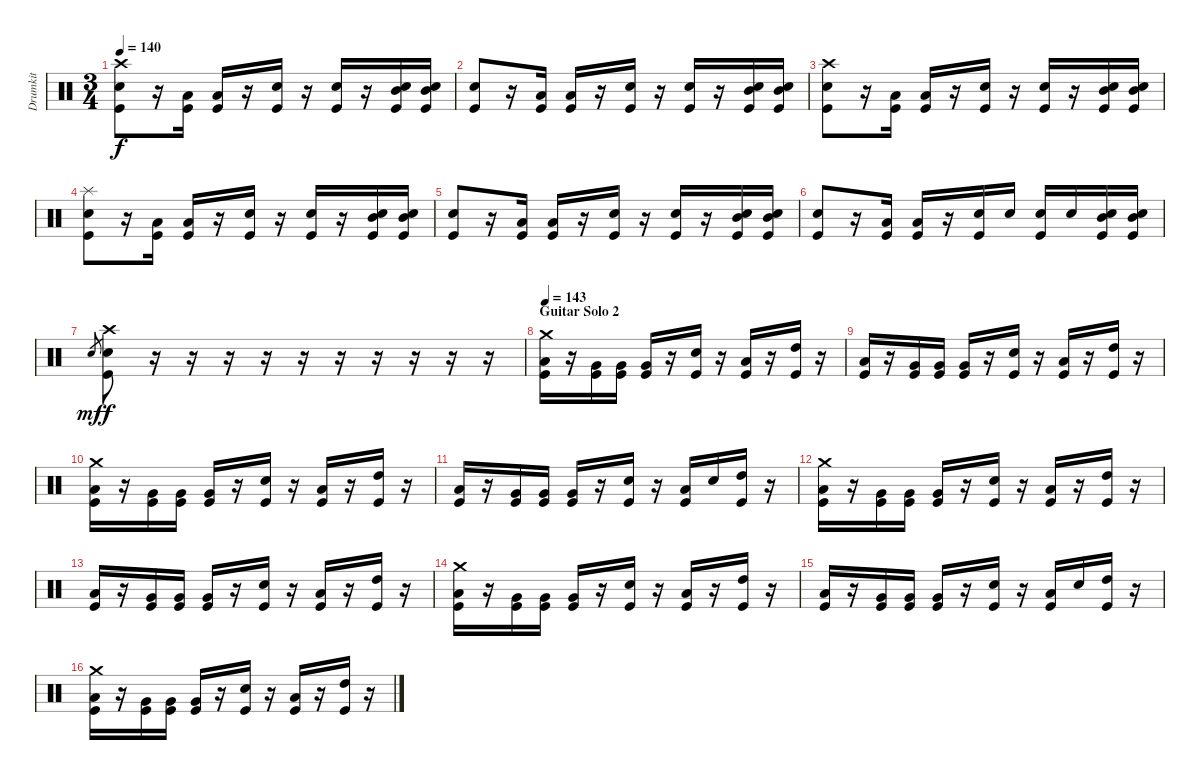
\track ("Drumkit" "Drumkit") {instrument percussion}
\staff {score}
\articulation defaults
\ts (3 4)
\tempo 140
\clef neutral
\ks c
("Crash high (hit)" "Snare (hit) 2" "Kick (hit)").8{dy f} r.16 ("Low Tom (hit)" "Kick (hit)").16 ("Low Tom (hit)" "Kick (hit)").16 r.16 ("Snare (hit) 2" "Kick (hit)").16 r.16 ("Snare (hit) 2" "Kick (hit)").16 r.16 ("Snare (hit) 2" "Mid Tom (hit)" "Kick (hit)").16 ("Snare (hit) 2" "Mid Tom (hit)" "Kick (hit)").16 |
("Snare (hit) 2" "Kick (hit)").8 r.16 ("Low Tom (hit)" "Kick (hit)").16 ("Low Tom (hit)" "Kick (hit)").16 r.16 ("Snare (hit) 2" "Kick (hit)").16 r.16 ("Snare (hit) 2" "Kick (hit)").16 r.16 ("Snare (hit) 2" "Mid Tom (hit)" "Kick (hit)").16 ("Snare (hit) 2" "Mid Tom (hit)" "Kick (hit)").16 |
("Crash high (hit)" "Snare (hit) 2" "Kick (hit)").8 r.16 ("Low Tom (hit)" "Kick (hit)").16 ("Low Tom (hit)" "Kick (hit)").16 r.16 ("Snare (hit) 2" "Kick (hit)").16 r.16 ("Snare (hit) 2" "Kick (hit)").16 r.16 ("Snare (hit) 2" "Mid Tom (hit)" "Kick (hit)").16 ("Snare (hit) 2" "Mid Tom (hit)" "Kick (hit)").16 |
("Splash (hit)" "Snare (hit) 2" "Kick (hit)").8 r.16 ("Low Tom (hit)" "Kick (hit)").16 ("Low Tom (hit)" "Kick (hit)").16 r.16 ("Snare (hit) 2" "Kick (hit)").16 r.16 ("Snare (hit) 2" "Kick (hit)").16 r.16 ("Snare (hit) 2" "Mid Tom (hit)" "Kick (hit)").16 ("Snare (hit) 2" "Mid Tom (hit)" "Kick (hit)").16 |
("Snare (hit) 2" "Kick (hit)").8 r.16 ("Low Tom (hit)" "Kick (hit)").16 ("Low Tom (hit)" "Kick (hit)").16 r.16 ("Snare (hit) 2" "Kick (hit)").16 r.16 ("Snare (hit) 2" "Kick (hit)").16 r.16 ("Snare (hit) 2" "Mid Tom (hit)" "Kick (hit)").16 ("Snare (hit) 2" "Mid Tom (hit)" "Kick (hit)").16 |
("Snare (hit) 2" "Kick (hit)").8 r.16 ("Low Tom (hit)" "Kick (hit)").16 ("Low Tom (hit)" "Kick (hit)").16 r.16 ("Snare (hit) 2" "Kick (hit)").16 "Snare (hit) 2".16 ("Snare (hit) 2" "Kick (hit)").16 "Snare (hit) 2".16 ("Snare (hit) 2" "Mid Tom (hit)" "Kick (hit)").16 ("Snare (hit) 2" "Mid Tom (hit)" "Kick (hit)").16 |
"Snare (hit)".8{gr dy mf} ("Crash high (hit)" "Snare (hit) 2" "Kick (hit)").8{dy f} r.16 r.16 r.16 r.16 r.16 r.16 r.16 r.16 r.16 r.16 |
\section ("" "Guitar Solo 2")
\tempo 143
("Crash medium (hit)" "Low Tom (hit)" "Kick (hit)").16 r.16 ("Very Low Tom (hit)" "Kick (hit)").16 ("Very Low Tom (hit)" "Kick (hit)").16 ("Very Low Tom (hit)" "Kick (hit)").16 r.16 ("Snare (hit) 2" "Kick (hit)").16 r.16 ("Low Tom (hit)" "Kick (hit)").16 r.16 ("High Tom (hit)" "Kick (hit)").16 r.16 |
("Low Tom (hit)" "Kick (hit)").16 r.16 ("Very Low Tom (hit)" "Kick (hit)").16 ("Very Low Tom (hit)" "Kick (hit)").16 ("Very Low Tom (hit)" "Kick (hit)").16 r.16 ("Snare (hit) 2" "Kick (hit)").16 r.16 ("Low Tom (hit)" "Kick (hit)").16 r.16 ("High Tom (hit)" "Kick (hit)").16 r.16 |
("Crash medium (hit)" "Low Tom (hit)" "Kick (hit)").16 r.16 ("Very Low Tom (hit)" "Kick (hit)").16 ("Very Low Tom (hit)" "Kick (hit)").16 ("Very Low Tom (hit)" "Kick (hit)").16 r.16 ("Snare (hit) 2" "Kick (hit)").16 r.16 ("Low Tom (hit)" "Kick (hit)").16 r.16 ("High Tom (hit)" "Kick (hit)").16 r.16 |
("Low Tom (hit)" "Kick (hit)").16 r.16 ("Very Low Tom (hit)" "Kick (hit)").16 ("Very Low Tom (hit)" "Kick (hit)").16 ("Very Low Tom (hit)" "Kick (hit)").16 r.16 ("Snare (hit) 2" "Kick (hit)").16 r.16 ("Low Tom (hit)" "Kick (hit)").16 "Snare (hit) 2".16 ("High Tom (hit)" "Kick (hit)").16 r.16 |
("Crash medium (hit)" "Low Tom (hit)" "Kick (hit)").16 r.16 ("Very Low Tom (hit)" "Kick (hit)").16 ("Very Low Tom (hit)" "Kick (hit)").16 ("Very Low Tom (hit)" "Kick (hit)").16 r.16 ("Snare (hit) 2" "Kick (hit)").16 r.16 ("Low Tom (hit)" "Kick (hit)").16 r.16 ("High Tom (hit)" "Kick (hit)").16 r.16 |
("Low Tom (hit)" "Kick (hit)").16 r.16 ("Very Low Tom (hit)" "Kick (hit)").16 ("Very Low Tom (hit)" "Kick (hit)").16 ("Very Low Tom (hit)" "Kick (hit)").16 r.16 ("Snare (hit) 2" "Kick (hit)").16 r.16 ("Low Tom (hit)" "Kick (hit)").16 r.16 ("High Tom (hit)" "Kick (hit)").16 r.16 |
("Crash medium (hit)" "Low Tom (hit)" "Kick (hit)").16 r.16 ("Very Low Tom (hit)" "Kick (hit)").16 ("Very Low Tom (hit)" "Kick (hit)").16 ("Very Low Tom (hit)" "Kick (hit)").16 r.16 ("Snare (hit) 2" "Kick (hit)").16 r.16 ("Low Tom (hit)" "Kick (hit)").16 r.16 ("High Tom (hit)" "Kick (hit)").16 r.16 |
("Low Tom (hit)" "Kick (hit)").16 r.16 ("Very Low Tom (hit)" "Kick (hit)").16 ("Very Low Tom (hit)" "Kick (hit)").16 ("Very Low Tom (hit)" "Kick (hit)").16 r.16 ("Snare (hit) 2" "Kick (hit)").16 r.16 ("Low Tom (hit)" "Kick (hit)").16 "Snare (hit) 2".16 ("High Tom (hit)" "Kick (hit)").16 r.16 |
("Crash medium (hit)" "Low Tom (hit)" "Kick (hit)").16 r.16 ("Very Low Tom (hit)" "Kick (hit)").16 ("Very Low Tom (hit)" "Kick (hit)").16 ("Very Low Tom (hit)" "Kick (hit)").16 r.16 ("Snare (hit) 2" "Kick (hit)").16 r.16 ("Low Tom (hit)" "Kick (hit)").16 r.16 ("High Tom (hit)" "Kick (hit)").16 r.16
